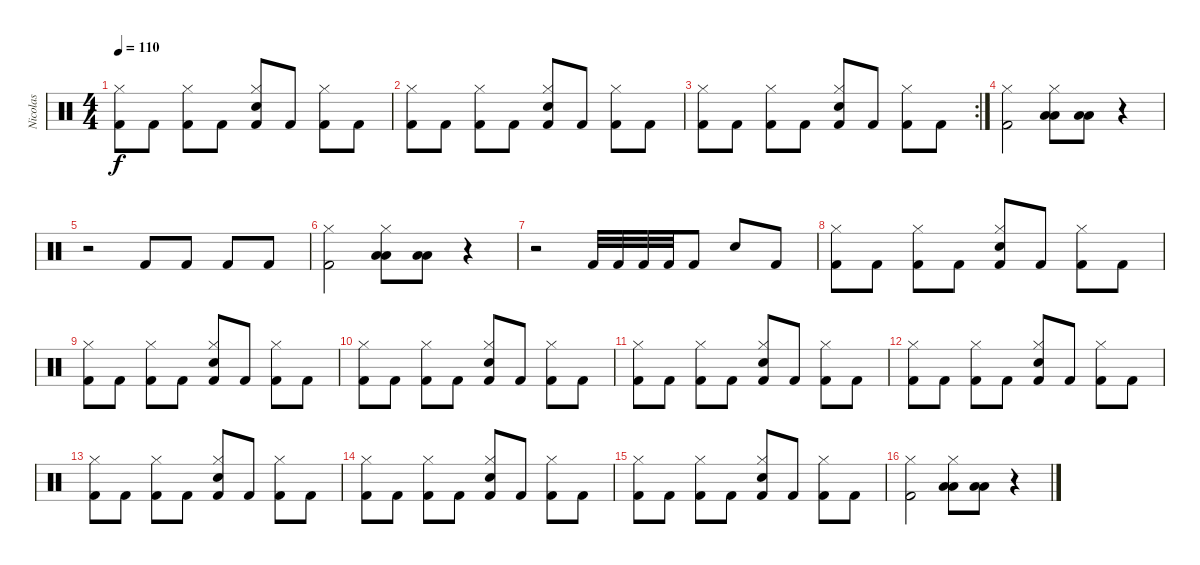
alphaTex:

\track ("Nicolas" "Nicolas") {instrument percussion}
\staff {score}
\articulation defaults
\ts (4 4)
\tempo 110
\clef neutral
\ks c
("Kick (hit) 2" "Hi-Hat (closed)").8{dy f} "Kick (hit) 2".8 ("Kick (hit) 2" "Hi-Hat (closed)").8 "Kick (hit) 2".8 ("Kick (hit) 2" "Snare (hit) 2" "Hi-Hat (closed)").8 "Kick (hit) 2".8 ("Kick (hit) 2" "Hi-Hat (closed)").8 "Kick (hit) 2".8 |
("Kick (hit) 2" "Hi-Hat (closed)").8 "Kick (hit) 2".8 ("Kick (hit) 2" "Hi-Hat (closed)").8 "Kick (hit) 2".8 ("Kick (hit) 2" "Snare (hit) 2" "Hi-Hat (closed)").8 "Kick (hit) 2".8 ("Kick (hit) 2" "Hi-Hat (closed)").8 "Kick (hit) 2".8 |
\rc 2
("Kick (hit) 2" "Hi-Hat (closed)").8 "Kick (hit) 2".8 ("Kick (hit) 2" "Hi-Hat (closed)").8 "Kick (hit) 2".8 ("Kick (hit) 2" "Snare (hit) 2" "Hi-Hat (closed)").8 "Kick (hit) 2".8 ("Kick (hit) 2" "Hi-Hat (closed)").8 "Kick (hit) 2".8 |
("Kick (hit) 2" "Hi-Hat (closed)").2 ("Low Floor Tom (hit)" "Low Tom (hit)" "Hi-Hat (closed)").8 ("Low Floor Tom (hit)" "Low Tom (hit)").8 r.4 |
r.2 "Kick (hit) 2".8 "Kick (hit) 2".8 "Kick (hit) 2".8 "Kick (hit) 2".8 |
("Kick (hit) 2" "Hi-Hat (closed)").2 ("Low Floor Tom (hit)" "Low Tom (hit)" "Hi-Hat (closed)").8 ("Low Floor Tom (hit)" "Low Tom (hit)").8 r.4 |
r.2 "Kick (hit) 2".32 "Kick (hit) 2".32 "Kick (hit) 2".32 "Kick (hit) 2".32 "Kick (hit) 2".8 "Snare (hit) 2".8 "Kick (hit) 2".8 |
("Kick (hit) 2" "Hi-Hat (closed)").8 "Kick (hit) 2".8 ("Kick (hit) 2" "Hi-Hat (closed)").8 "Kick (hit) 2".8 ("Kick (hit) 2" "Snare (hit) 2" "Hi-Hat (closed)").8 "Kick (hit) 2".8 ("Kick (hit) 2" "Hi-Hat (closed)").8 "Kick (hit) 2".8 |
("Kick (hit) 2" "Hi-Hat (closed)").8 "Kick (hit) 2".8 ("Kick (hit) 2" "Hi-Hat (closed)").8 "Kick (hit) 2".8 ("Kick (hit) 2" "Snare (hit) 2" "Hi-Hat (closed)").8 "Kick (hit) 2".8 ("Kick (hit) 2" "Hi-Hat (closed)").8 "Kick (hit) 2".8 |
("Kick (hit) 2" "Hi-Hat (closed)").8 "Kick (hit) 2".8 ("Kick (hit) 2" "Hi-Hat (closed)").8 "Kick (hit) 2".8 ("Kick (hit) 2" "Snare (hit) 2" "Hi-Hat (closed)").8 "Kick (hit) 2".8 ("Kick (hit) 2" "Hi-Hat (closed)").8 "Kick (hit) 2".8 |
("Kick (hit) 2" "Hi-Hat (closed)").8 "Kick (hit) 2".8 ("Kick (hit) 2" "Hi-Hat (closed)").8 "Kick (hit) 2".8 ("Kick (hit) 2" "Snare (hit) 2" "Hi-Hat (closed)").8 "Kick (hit) 2".8 ("Kick (hit) 2" "Hi-Hat (closed)").8 "Kick (hit) 2".8 |
("Kick (hit) 2" "Hi-Hat (closed)").8 "Kick (hit) 2".8 ("Kick (hit) 2" "Hi-Hat (closed)").8 "Kick (hit) 2".8 ("Kick (hit) 2" "Snare (hit) 2" "Hi-Hat (closed)").8 "Kick (hit) 2".8 ("Kick (hit) 2" "Hi-Hat (closed)").8 "Kick (hit) 2".8 |
("Kick (hit) 2" "Hi-Hat (closed)").8 "Kick (hit) 2".8 ("Kick (hit) 2" "Hi-Hat (closed)").8 "Kick (hit) 2".8 ("Kick (hit) 2" "Snare (hit) 2" "Hi-Hat (closed)").8 "Kick (hit) 2".8 ("Kick (hit) 2" "Hi-Hat (closed)").8 "Kick (hit) 2".8 |
("Kick (hit) 2" "Hi-Hat (closed)").8 "Kick (hit) 2".8 ("Kick (hit) 2" "Hi-Hat (closed)").8 "Kick (hit) 2".8 ("Kick (hit) 2" "Snare (hit) 2" "Hi-Hat (closed)").8 "Kick (hit) 2".8 ("Kick (hit) 2" "Hi-Hat (closed)").8 "Kick (hit) 2".8 |
("Kick (hit) 2" "Hi-Hat (closed)").8 "Kick (hit) 2".8 ("Kick (hit) 2" "Hi-Hat (closed)").8 "Kick (hit) 2".8 ("Kick (hit) 2" "Snare (hit) 2" "Hi-Hat (closed)").8 "Kick (hit) 2".8 ("Kick (hit) 2" "Hi-Hat (closed)").8 "Kick (hit) 2".8 |
("Kick (hit) 2" "Hi-Hat (closed)").2 ("Low Floor Tom (hit)" "Low Tom (hit)" "Hi-Hat (closed)").8 ("Low Floor Tom (hit)" "Low Tom (hit)").8 r.4
